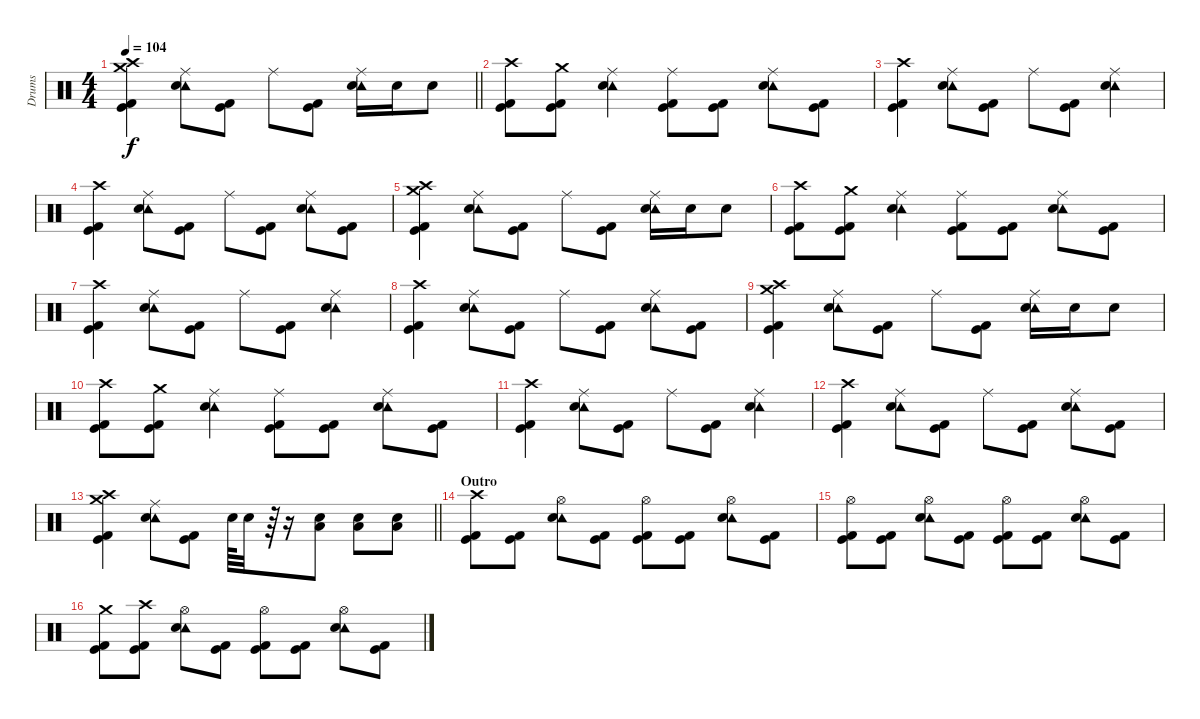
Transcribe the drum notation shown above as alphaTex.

\track ("Drums" "Drums") {instrument percussion}
\staff {score}
\articulation defaults
\ts (4 4)
\tempo 104
\clef neutral
\barLineRight lightlight
\ks c
("Crash high (hit)" "Crash medium (hit)" "Kick (hit)" "Kick (hit) 2").4{dy f} ("Ride (middle)" "Tambourine (hit)" "Electric Snare (hit)").8 ("Kick (hit)" "Kick (hit) 2").8 "Ride (middle)".8 ("Kick (hit)" "Kick (hit) 2").8 ("Ride (middle)" "Tambourine (hit)" "Electric Snare (hit)").16 "Electric Snare (hit)".16 "Electric Snare (hit)".8 |
("Crash high (hit)" "Kick (hit)" "Kick (hit) 2").8 ("Crash medium (hit)" "Kick (hit)" "Kick (hit) 2").8 ("Ride (middle)" "Tambourine (hit)" "Electric Snare (hit)").4 ("Ride (middle)" "Kick (hit)" "Kick (hit) 2").8 ("Kick (hit)" "Kick (hit) 2").8 ("Ride (middle)" "Tambourine (hit)" "Electric Snare (hit)").8 ("Kick (hit)" "Kick (hit) 2").8 |
("Crash high (hit)" "Kick (hit)" "Kick (hit) 2").4 ("Ride (middle)" "Tambourine (hit)" "Electric Snare (hit)").8 ("Kick (hit)" "Kick (hit) 2").8 "Ride (middle)".8 ("Kick (hit)" "Kick (hit) 2").8 ("Ride (middle)" "Tambourine (hit)" "Electric Snare (hit)").4 |
("Crash high (hit)" "Kick (hit)" "Kick (hit) 2").4 ("Ride (middle)" "Tambourine (hit)" "Electric Snare (hit)").8 ("Kick (hit)" "Kick (hit) 2").8 "Ride (middle)".8 ("Kick (hit)" "Kick (hit) 2").8 ("Ride (middle)" "Tambourine (hit)" "Electric Snare (hit)").8 ("Kick (hit)" "Kick (hit) 2").8 |
("Crash high (hit)" "Crash medium (hit)" "Kick (hit)" "Kick (hit) 2").4 ("Ride (middle)" "Tambourine (hit)" "Electric Snare (hit)").8 ("Kick (hit)" "Kick (hit) 2").8 "Ride (middle)".8 ("Kick (hit)" "Kick (hit) 2").8 ("Ride (middle)" "Tambourine (hit)" "Electric Snare (hit)").16 "Electric Snare (hit)".16 "Electric Snare (hit)".8 |
("Crash high (hit)" "Kick (hit)" "Kick (hit) 2").8 ("Crash medium (hit)" "Kick (hit)" "Kick (hit) 2").8 ("Ride (middle)" "Tambourine (hit)" "Electric Snare (hit)").4 ("Ride (middle)" "Kick (hit)" "Kick (hit) 2").8 ("Kick (hit)" "Kick (hit) 2").8 ("Ride (middle)" "Tambourine (hit)" "Electric Snare (hit)").8 ("Kick (hit)" "Kick (hit) 2").8 |
("Crash high (hit)" "Kick (hit)" "Kick (hit) 2").4 ("Ride (middle)" "Tambourine (hit)" "Electric Snare (hit)").8 ("Kick (hit)" "Kick (hit) 2").8 "Ride (middle)".8 ("Kick (hit)" "Kick (hit) 2").8 ("Ride (middle)" "Tambourine (hit)" "Electric Snare (hit)").4 |
("Crash high (hit)" "Kick (hit)" "Kick (hit) 2").4 ("Ride (middle)" "Tambourine (hit)" "Electric Snare (hit)").8 ("Kick (hit)" "Kick (hit) 2").8 "Ride (middle)".8 ("Kick (hit)" "Kick (hit) 2").8 ("Ride (middle)" "Tambourine (hit)" "Electric Snare (hit)").8 ("Kick (hit)" "Kick (hit) 2").8 |
("Crash high (hit)" "Crash medium (hit)" "Kick (hit)" "Kick (hit) 2").4 ("Ride (middle)" "Tambourine (hit)" "Electric Snare (hit)").8 ("Kick (hit)" "Kick (hit) 2").8 "Ride (middle)".8 ("Kick (hit)" "Kick (hit) 2").8 ("Ride (middle)" "Tambourine (hit)" "Electric Snare (hit)").16 "Electric Snare (hit)".16 "Electric Snare (hit)".8 |
("Crash high (hit)" "Kick (hit)" "Kick (hit) 2").8 ("Crash medium (hit)" "Kick (hit)" "Kick (hit) 2").8 ("Ride (middle)" "Tambourine (hit)" "Electric Snare (hit)").4 ("Ride (middle)" "Kick (hit)" "Kick (hit) 2").8 ("Kick (hit)" "Kick (hit) 2").8 ("Ride (middle)" "Tambourine (hit)" "Electric Snare (hit)").8 ("Kick (hit)" "Kick (hit) 2").8 |
("Crash high (hit)" "Kick (hit)" "Kick (hit) 2").4 ("Ride (middle)" "Tambourine (hit)" "Electric Snare (hit)").8 ("Kick (hit)" "Kick (hit) 2").8 "Ride (middle)".8 ("Kick (hit)" "Kick (hit) 2").8 ("Ride (middle)" "Tambourine (hit)" "Electric Snare (hit)").4 |
("Crash high (hit)" "Kick (hit)" "Kick (hit) 2").4 ("Ride (middle)" "Tambourine (hit)" "Electric Snare (hit)").8 ("Kick (hit)" "Kick (hit) 2").8 "Ride (middle)".8 ("Kick (hit)" "Kick (hit) 2").8 ("Ride (middle)" "Tambourine (hit)" "Electric Snare (hit)").8 ("Kick (hit)" "Kick (hit) 2").8 |
\barLineRight lightlight
("Crash high (hit)" "Crash medium (hit)" "Kick (hit)" "Kick (hit) 2").4 ("Ride (middle)" "Tambourine (hit)" "Electric Snare (hit)").8 ("Kick (hit)" "Kick (hit) 2").8 "Electric Snare (hit)".64 "Electric Snare (hit)".32 r.64 r.16 ("Low Tom (hit)" "Electric Snare (hit)").8 ("Low Tom (hit)" "Electric Snare (hit)").8 ("Low Tom (hit)" "Electric Snare (hit)").8 |
\section ("" "Outro")
("Crash high (hit)" "Kick (hit)" "Kick (hit) 2").8 ("Kick (hit)" "Kick (hit) 2").8 ("Hi-Hat (open)" "Tambourine (hit)" "Electric Snare (hit)").8 ("Kick (hit)" "Kick (hit) 2").8 ("Hi-Hat (open)" "Kick (hit)" "Kick (hit) 2").8 ("Kick (hit)" "Kick (hit) 2").8 ("Hi-Hat (open)" "Tambourine (hit)" "Electric Snare (hit)").8 ("Kick (hit)" "Kick (hit) 2").8 |
("Hi-Hat (open)" "Kick (hit)" "Kick (hit) 2").8 ("Kick (hit)" "Kick (hit) 2").8 ("Hi-Hat (open)" "Tambourine (hit)" "Electric Snare (hit)").8 ("Kick (hit)" "Kick (hit) 2").8 ("Hi-Hat (open)" "Kick (hit)" "Kick (hit) 2").8 ("Kick (hit)" "Kick (hit) 2").8 ("Hi-Hat (open)" "Tambourine (hit)" "Electric Snare (hit)").8 ("Kick (hit)" "Kick (hit) 2").8 |
("Crash medium (hit)" "Kick (hit)" "Kick (hit) 2").8 ("Crash high (hit)" "Kick (hit)" "Kick (hit) 2").8 ("Hi-Hat (open)" "Tambourine (hit)" "Electric Snare (hit)").8 ("Kick (hit)" "Kick (hit) 2").8 ("Hi-Hat (open)" "Kick (hit)" "Kick (hit) 2").8 ("Kick (hit)" "Kick (hit) 2").8 ("Hi-Hat (open)" "Tambourine (hit)" "Electric Snare (hit)").8 ("Kick (hit)" "Kick (hit) 2").8
